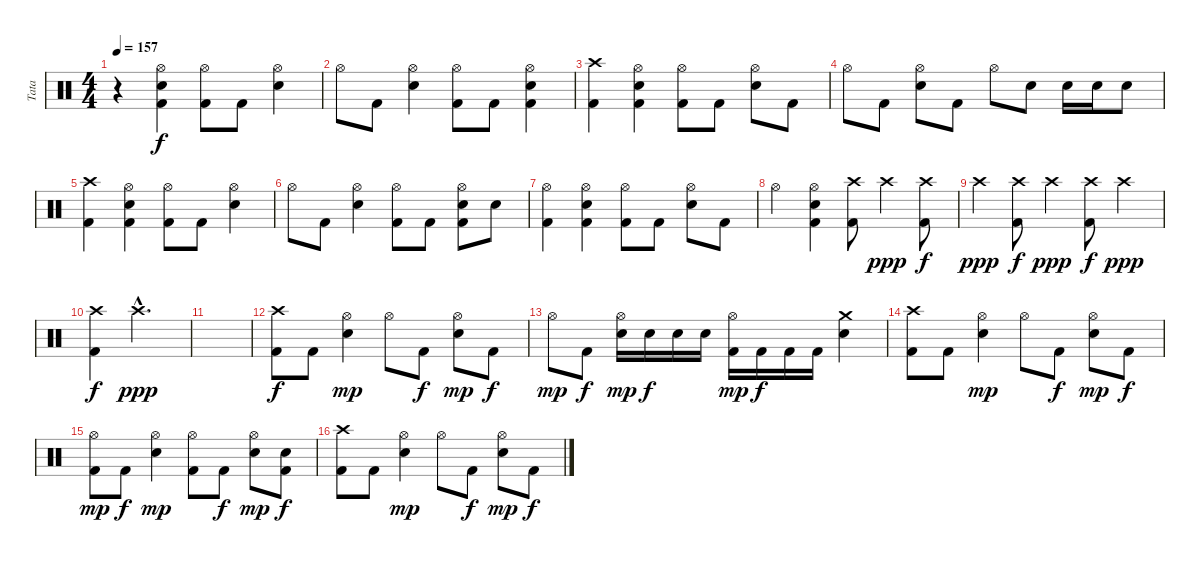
\track ("Tata" "Tata") {instrument percussion}
\staff {score}
\articulation defaults
\ts (4 4)
\tempo 157
\clef neutral
\ks c
r.4{dy f} ("Kick (hit) 2" "Electric Snare (hit)" "Hi-Hat (open)").4 ("Kick (hit) 2" "Hi-Hat (open)").8 "Kick (hit) 2".8 ("Electric Snare (hit)" "Hi-Hat (open)").4 |
"Hi-Hat (open)".8 "Kick (hit) 2".8 ("Electric Snare (hit)" "Hi-Hat (open)").4 ("Kick (hit) 2" "Hi-Hat (open)").8 "Kick (hit) 2".8 ("Kick (hit) 2" "Electric Snare (hit)" "Hi-Hat (open)").4 |
("Kick (hit) 2" "Crash high (hit)").4 ("Kick (hit) 2" "Electric Snare (hit)" "Hi-Hat (open)").4 ("Kick (hit) 2" "Hi-Hat (open)").8 "Kick (hit) 2".8 ("Electric Snare (hit)" "Hi-Hat (open)").8 "Kick (hit) 2".8 |
"Hi-Hat (open)".8 "Kick (hit) 2".8 ("Electric Snare (hit)" "Hi-Hat (open)").8 "Kick (hit) 2".8 "Hi-Hat (open)".8 "Electric Snare (hit)".8 "Electric Snare (hit)".16 "Electric Snare (hit)".16 "Electric Snare (hit)".8 |
("Kick (hit) 2" "Crash high (hit)").4 ("Kick (hit) 2" "Electric Snare (hit)" "Hi-Hat (open)").4 ("Kick (hit) 2" "Hi-Hat (open)").8 "Kick (hit) 2".8 ("Electric Snare (hit)" "Hi-Hat (open)").4 |
"Hi-Hat (open)".8 "Kick (hit) 2".8 ("Electric Snare (hit)" "Hi-Hat (open)").4 ("Kick (hit) 2" "Hi-Hat (open)").8 "Kick (hit) 2".8 ("Kick (hit) 2" "Electric Snare (hit)" "Hi-Hat (open)").8 "Electric Snare (hit)".8 |
("Kick (hit) 2" "Hi-Hat (open)").4 ("Kick (hit) 2" "Electric Snare (hit)" "Hi-Hat (open)").4 ("Kick (hit) 2" "Hi-Hat (open)").8 "Kick (hit) 2".8 ("Electric Snare (hit)" "Hi-Hat (open)").8 "Kick (hit) 2".8 |
"Hi-Hat (open)".4 ("Kick (hit) 2" "Electric Snare (hit)" "Hi-Hat (open)").4 ("Kick (hit) 2" "Crash high (hit)").8 "Crash high (hit)".4{dy ppp} ("Kick (hit) 2" "Crash high (hit)").8{dy f} |
"Crash high (hit)".4{dy ppp} ("Kick (hit) 2" "Crash high (hit)").8{dy f} "Crash high (hit)".4{dy ppp} ("Kick (hit) 2" "Crash high (hit)").8{dy f} "Crash high (hit)".4{dy ppp} |
("Kick (hit) 2" "Crash high (hit)").4{dy f} "Crash high (hit)"{hac}.2{d dy ppp} |
|
("Kick (hit) 2" "Crash high (hit)").8{dy f} "Kick (hit) 2".8 ("Electric Snare (hit)" "Hi-Hat (open)").4{dy mp} "Hi-Hat (open)".8 "Kick (hit) 2".8{dy f} ("Electric Snare (hit)" "Hi-Hat (open)").8{dy mp} "Kick (hit) 2".8{dy f} |
"Hi-Hat (open)".8{dy mp} "Kick (hit) 2".8{dy f} ("Electric Snare (hit)" "Hi-Hat (open)").16{dy mp} "Electric Snare (hit)".16{dy f} "Electric Snare (hit)".16 "Electric Snare (hit)".16 ("Kick (hit) 2" "Hi-Hat (open)").16{dy mp} "Kick (hit) 2".16{dy f} "Kick (hit) 2".16 "Kick (hit) 2".16 ("Electric Snare (hit)" "Crash medium (hit)").4 |
("Kick (hit) 2" "Crash high (hit)").8 "Kick (hit) 2".8 ("Electric Snare (hit)" "Hi-Hat (open)").4{dy mp} "Hi-Hat (open)".8 "Kick (hit) 2".8{dy f} ("Electric Snare (hit)" "Hi-Hat (open)").8{dy mp} "Kick (hit) 2".8{dy f} |
("Kick (hit) 2" "Hi-Hat (open)").8{dy mp} "Kick (hit) 2".8{dy f} ("Electric Snare (hit)" "Hi-Hat (open)").4{dy mp} ("Kick (hit) 2" "Hi-Hat (open)").8 "Kick (hit) 2".8{dy f} ("Electric Snare (hit)" "Hi-Hat (open)").8{dy mp} ("Kick (hit) 2" "Electric Snare (hit)").8{dy f} |
("Kick (hit) 2" "Crash high (hit)").8 "Kick (hit) 2".8 ("Electric Snare (hit)" "Hi-Hat (open)").4{dy mp} "Hi-Hat (open)".8 "Kick (hit) 2".8{dy f} ("Electric Snare (hit)" "Hi-Hat (open)").8{dy mp} "Kick (hit) 2".8{dy f}
